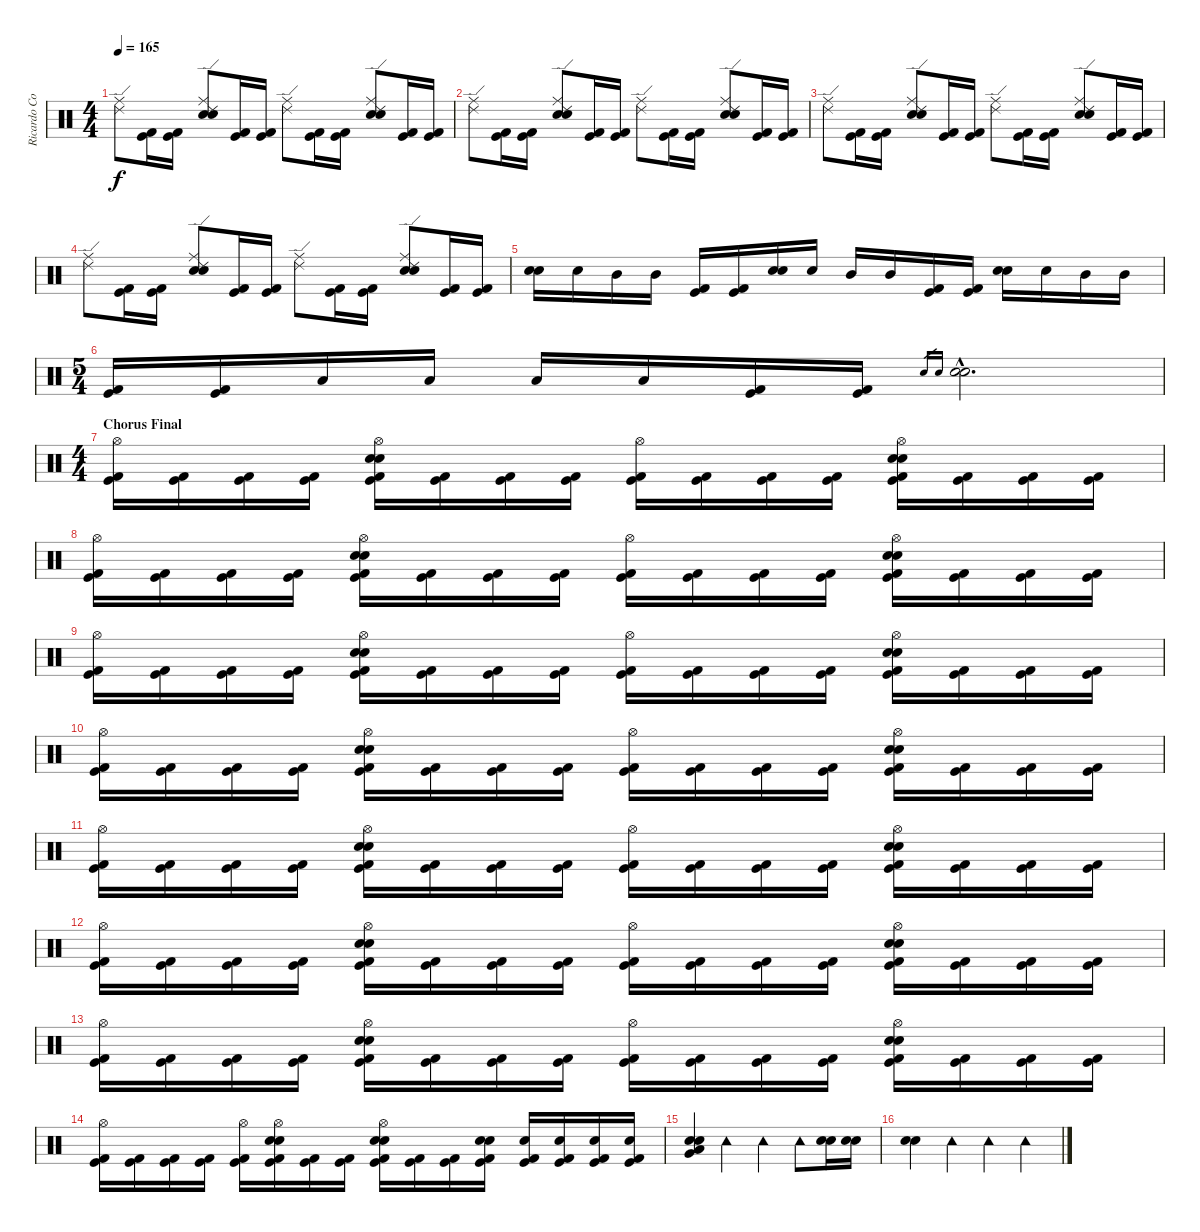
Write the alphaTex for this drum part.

\track ("Ricardo Confessori" "Ricardo Co") {instrument percussion}
\staff {score}
\articulation defaults
\ts (4 4)
\tempo 165
\clef neutral
\ks c
("Ride (edge) 2" "Ride (middle)").8{dy f} ("Kick (hit) 2" "Kick (hit)").16 ("Kick (hit) 2" "Kick (hit)").16 ("Ride (edge) 2" "Ride (middle)" "Electric Snare (hit)" "Snare (hit) 2").8 ("Kick (hit) 2" "Kick (hit)").16 ("Kick (hit) 2" "Kick (hit)").16 ("Ride (edge) 2" "Ride (middle)").8 ("Kick (hit) 2" "Kick (hit)").16 ("Kick (hit) 2" "Kick (hit)").16 ("Ride (edge) 2" "Ride (middle)" "Electric Snare (hit)" "Snare (hit) 2").8 ("Kick (hit) 2" "Kick (hit)").16 ("Kick (hit) 2" "Kick (hit)").16 |
("Ride (edge) 2" "Ride (middle)").8 ("Kick (hit) 2" "Kick (hit)").16 ("Kick (hit) 2" "Kick (hit)").16 ("Ride (edge) 2" "Ride (middle)" "Electric Snare (hit)" "Snare (hit) 2").8 ("Kick (hit) 2" "Kick (hit)").16 ("Kick (hit) 2" "Kick (hit)").16 ("Ride (edge) 2" "Ride (middle)").8 ("Kick (hit) 2" "Kick (hit)").16 ("Kick (hit) 2" "Kick (hit)").16 ("Ride (edge) 2" "Ride (middle)" "Electric Snare (hit)" "Snare (hit) 2").8 ("Kick (hit) 2" "Kick (hit)").16 ("Kick (hit) 2" "Kick (hit)").16 |
("Ride (edge) 2" "Ride (middle)").8 ("Kick (hit) 2" "Kick (hit)").16 ("Kick (hit) 2" "Kick (hit)").16 ("Ride (edge) 2" "Ride (middle)" "Electric Snare (hit)" "Snare (hit) 2").8 ("Kick (hit) 2" "Kick (hit)").16 ("Kick (hit) 2" "Kick (hit)").16 ("Ride (edge) 2" "Ride (middle)").8 ("Kick (hit) 2" "Kick (hit)").16 ("Kick (hit) 2" "Kick (hit)").16 ("Ride (edge) 2" "Ride (middle)" "Electric Snare (hit)" "Snare (hit) 2").8 ("Kick (hit) 2" "Kick (hit)").16 ("Kick (hit) 2" "Kick (hit)").16 |
("Ride (edge) 2" "Ride (middle)").8 ("Kick (hit) 2" "Kick (hit)").16 ("Kick (hit) 2" "Kick (hit)").16 ("Ride (edge) 2" "Ride (middle)" "Electric Snare (hit)" "Snare (hit) 2").8 ("Kick (hit) 2" "Kick (hit)").16 ("Kick (hit) 2" "Kick (hit)").16 ("Ride (edge) 2" "Ride (middle)").8 ("Kick (hit) 2" "Kick (hit)").16 ("Kick (hit) 2" "Kick (hit)").16 ("Ride (edge) 2" "Ride (middle)" "Electric Snare (hit)" "Snare (hit) 2").8 ("Kick (hit) 2" "Kick (hit)").16 ("Kick (hit) 2" "Kick (hit)").16 |
("Electric Snare (hit)" "Snare (hit) 2").16 "Electric Snare (hit)".16 "Mid Tom (hit)".16 "Mid Tom (hit)".16 ("Kick (hit) 2" "Kick (hit)").16 ("Kick (hit) 2" "Kick (hit)").16 ("Electric Snare (hit)" "Snare (hit) 2").16 "Electric Snare (hit)".16 "Mid Tom (hit)".16 "Mid Tom (hit)".16 ("Kick (hit) 2" "Kick (hit)").16 ("Kick (hit) 2" "Kick (hit)").16 ("Electric Snare (hit)" "Snare (hit) 2").16 "Electric Snare (hit)".16 "Mid Tom (hit)".16 "Mid Tom (hit)".16 |
\ts (5 4)
("Kick (hit) 2" "Kick (hit)").16 ("Kick (hit) 2" "Kick (hit)").16 "Low Tom (hit)".16 "Low Tom (hit)".16 "Low Tom (hit)".16 "Low Tom (hit)".16 ("Kick (hit) 2" "Kick (hit)").16 ("Kick (hit) 2" "Kick (hit)").16 "Electric Snare (hit)".16{gr} "Snare (hit) 2".16{gr} ("Electric Snare (hit)"{hac} "Snare (hit) 2"{hac}).2{d} |
\ts (4 4)
\section ("" "Chorus Final")
("Hi-Hat (open)" "Kick (hit) 2" "Kick (hit)").16 ("Kick (hit) 2" "Kick (hit)").16 ("Kick (hit) 2" "Kick (hit)").16 ("Kick (hit) 2" "Kick (hit)").16 ("Hi-Hat (open)" "Electric Snare (hit)" "Snare (hit) 2" "Kick (hit) 2" "Kick (hit)").16 ("Kick (hit) 2" "Kick (hit)").16 ("Kick (hit) 2" "Kick (hit)").16 ("Kick (hit) 2" "Kick (hit)").16 ("Hi-Hat (open)" "Kick (hit) 2" "Kick (hit)").16 ("Kick (hit) 2" "Kick (hit)").16 ("Kick (hit) 2" "Kick (hit)").16 ("Kick (hit) 2" "Kick (hit)").16 ("Hi-Hat (open)" "Electric Snare (hit)" "Snare (hit) 2" "Kick (hit) 2" "Kick (hit)").16 ("Kick (hit) 2" "Kick (hit)").16 ("Kick (hit) 2" "Kick (hit)").16 ("Kick (hit) 2" "Kick (hit)").16 |
("Hi-Hat (open)" "Kick (hit) 2" "Kick (hit)").16 ("Kick (hit) 2" "Kick (hit)").16 ("Kick (hit) 2" "Kick (hit)").16 ("Kick (hit) 2" "Kick (hit)").16 ("Hi-Hat (open)" "Electric Snare (hit)" "Snare (hit) 2" "Kick (hit) 2" "Kick (hit)").16 ("Kick (hit) 2" "Kick (hit)").16 ("Kick (hit) 2" "Kick (hit)").16 ("Kick (hit) 2" "Kick (hit)").16 ("Hi-Hat (open)" "Kick (hit) 2" "Kick (hit)").16 ("Kick (hit) 2" "Kick (hit)").16 ("Kick (hit) 2" "Kick (hit)").16 ("Kick (hit) 2" "Kick (hit)").16 ("Hi-Hat (open)" "Electric Snare (hit)" "Snare (hit) 2" "Kick (hit) 2" "Kick (hit)").16 ("Kick (hit) 2" "Kick (hit)").16 ("Kick (hit) 2" "Kick (hit)").16 ("Kick (hit) 2" "Kick (hit)").16 |
("Hi-Hat (open)" "Kick (hit) 2" "Kick (hit)").16 ("Kick (hit) 2" "Kick (hit)").16 ("Kick (hit) 2" "Kick (hit)").16 ("Kick (hit) 2" "Kick (hit)").16 ("Hi-Hat (open)" "Electric Snare (hit)" "Snare (hit) 2" "Kick (hit) 2" "Kick (hit)").16 ("Kick (hit) 2" "Kick (hit)").16 ("Kick (hit) 2" "Kick (hit)").16 ("Kick (hit) 2" "Kick (hit)").16 ("Hi-Hat (open)" "Kick (hit) 2" "Kick (hit)").16 ("Kick (hit) 2" "Kick (hit)").16 ("Kick (hit) 2" "Kick (hit)").16 ("Kick (hit) 2" "Kick (hit)").16 ("Hi-Hat (open)" "Electric Snare (hit)" "Snare (hit) 2" "Kick (hit) 2" "Kick (hit)").16 ("Kick (hit) 2" "Kick (hit)").16 ("Kick (hit) 2" "Kick (hit)").16 ("Kick (hit) 2" "Kick (hit)").16 |
("Hi-Hat (open)" "Kick (hit) 2" "Kick (hit)").16 ("Kick (hit) 2" "Kick (hit)").16 ("Kick (hit) 2" "Kick (hit)").16 ("Kick (hit) 2" "Kick (hit)").16 ("Hi-Hat (open)" "Electric Snare (hit)" "Snare (hit) 2" "Kick (hit) 2" "Kick (hit)").16 ("Kick (hit) 2" "Kick (hit)").16 ("Kick (hit) 2" "Kick (hit)").16 ("Kick (hit) 2" "Kick (hit)").16 ("Hi-Hat (open)" "Kick (hit) 2" "Kick (hit)").16 ("Kick (hit) 2" "Kick (hit)").16 ("Kick (hit) 2" "Kick (hit)").16 ("Kick (hit) 2" "Kick (hit)").16 ("Hi-Hat (open)" "Electric Snare (hit)" "Snare (hit) 2" "Kick (hit) 2" "Kick (hit)").16 ("Kick (hit) 2" "Kick (hit)").16 ("Kick (hit) 2" "Kick (hit)").16 ("Kick (hit) 2" "Kick (hit)").16 |
("Hi-Hat (open)" "Kick (hit) 2" "Kick (hit)").16 ("Kick (hit) 2" "Kick (hit)").16 ("Kick (hit) 2" "Kick (hit)").16 ("Kick (hit) 2" "Kick (hit)").16 ("Hi-Hat (open)" "Electric Snare (hit)" "Snare (hit) 2" "Kick (hit) 2" "Kick (hit)").16 ("Kick (hit) 2" "Kick (hit)").16 ("Kick (hit) 2" "Kick (hit)").16 ("Kick (hit) 2" "Kick (hit)").16 ("Hi-Hat (open)" "Kick (hit) 2" "Kick (hit)").16 ("Kick (hit) 2" "Kick (hit)").16 ("Kick (hit) 2" "Kick (hit)").16 ("Kick (hit) 2" "Kick (hit)").16 ("Hi-Hat (open)" "Electric Snare (hit)" "Snare (hit) 2" "Kick (hit) 2" "Kick (hit)").16 ("Kick (hit) 2" "Kick (hit)").16 ("Kick (hit) 2" "Kick (hit)").16 ("Kick (hit) 2" "Kick (hit)").16 |
("Hi-Hat (open)" "Kick (hit) 2" "Kick (hit)").16 ("Kick (hit) 2" "Kick (hit)").16 ("Kick (hit) 2" "Kick (hit)").16 ("Kick (hit) 2" "Kick (hit)").16 ("Hi-Hat (open)" "Electric Snare (hit)" "Snare (hit) 2" "Kick (hit) 2" "Kick (hit)").16 ("Kick (hit) 2" "Kick (hit)").16 ("Kick (hit) 2" "Kick (hit)").16 ("Kick (hit) 2" "Kick (hit)").16 ("Hi-Hat (open)" "Kick (hit) 2" "Kick (hit)").16 ("Kick (hit) 2" "Kick (hit)").16 ("Kick (hit) 2" "Kick (hit)").16 ("Kick (hit) 2" "Kick (hit)").16 ("Hi-Hat (open)" "Electric Snare (hit)" "Snare (hit) 2" "Kick (hit) 2" "Kick (hit)").16 ("Kick (hit) 2" "Kick (hit)").16 ("Kick (hit) 2" "Kick (hit)").16 ("Kick (hit) 2" "Kick (hit)").16 |
("Hi-Hat (open)" "Kick (hit) 2" "Kick (hit)").16 ("Kick (hit) 2" "Kick (hit)").16 ("Kick (hit) 2" "Kick (hit)").16 ("Kick (hit) 2" "Kick (hit)").16 ("Hi-Hat (open)" "Electric Snare (hit)" "Snare (hit) 2" "Kick (hit) 2" "Kick (hit)").16 ("Kick (hit) 2" "Kick (hit)").16 ("Kick (hit) 2" "Kick (hit)").16 ("Kick (hit) 2" "Kick (hit)").16 ("Hi-Hat (open)" "Kick (hit) 2" "Kick (hit)").16 ("Kick (hit) 2" "Kick (hit)").16 ("Kick (hit) 2" "Kick (hit)").16 ("Kick (hit) 2" "Kick (hit)").16 ("Hi-Hat (open)" "Electric Snare (hit)" "Snare (hit) 2" "Kick (hit) 2" "Kick (hit)").16 ("Kick (hit) 2" "Kick (hit)").16 ("Kick (hit) 2" "Kick (hit)").16 ("Kick (hit) 2" "Kick (hit)").16 |
("Hi-Hat (open)" "Kick (hit) 2" "Kick (hit)").16 ("Kick (hit) 2" "Kick (hit)").16 ("Kick (hit) 2" "Kick (hit)").16 ("Kick (hit) 2" "Kick (hit)").16 ("Hi-Hat (open)" "Kick (hit) 2" "Kick (hit)").16 ("Hi-Hat (open)" "Electric Snare (hit)" "Snare (hit) 2" "Kick (hit) 2" "Kick (hit)").16 ("Kick (hit) 2" "Kick (hit)").16 ("Kick (hit) 2" "Kick (hit)").16 ("Hi-Hat (open)" "Electric Snare (hit)" "Snare (hit) 2" "Kick (hit) 2" "Kick (hit)").16 ("Kick (hit) 2" "Kick (hit)").16 ("Kick (hit) 2" "Kick (hit)").16 ("Electric Snare (hit)" "Snare (hit) 2" "Kick (hit) 2" "Kick (hit)").16 ("Electric Snare (hit)" "Kick (hit) 2" "Kick (hit)").16 ("Electric Snare (hit)" "Kick (hit) 2" "Kick (hit)").16 ("Electric Snare (hit)" "Kick (hit) 2" "Kick (hit)").16 ("Electric Snare (hit)" "Kick (hit) 2" "Kick (hit)").16 |
("Electric Snare (hit)" "Snare (hit) 2" "Low Floor Tom (hit)" "Very Low Tom (hit)").4 "Tambourine (hit)".4 "Tambourine (hit)".4 "Tambourine (hit)".8 ("Electric Snare (hit)" "Snare (hit) 2").16 ("Electric Snare (hit)" "Snare (hit) 2").16 |
("Electric Snare (hit)" "Snare (hit) 2").4 "Tambourine (hit)".4 "Tambourine (hit)".4 "Tambourine (hit)".4
